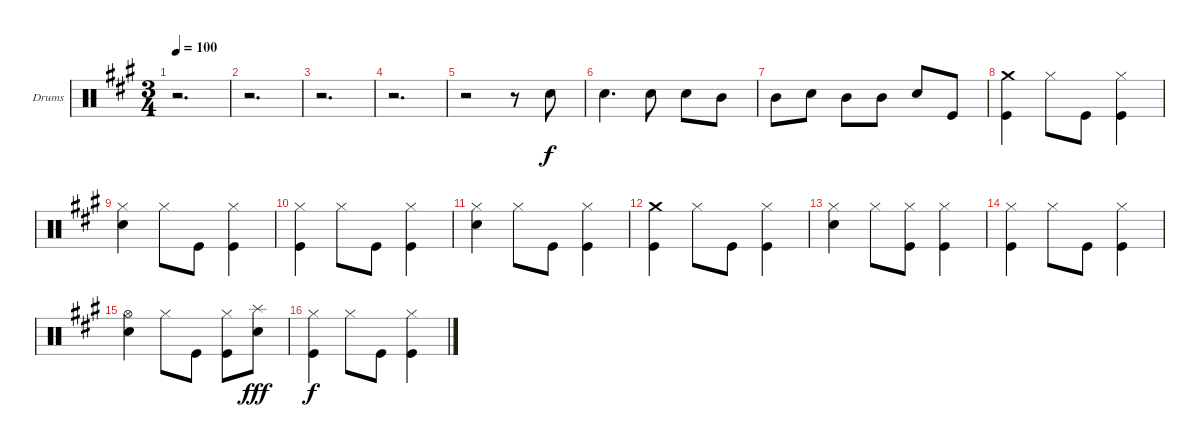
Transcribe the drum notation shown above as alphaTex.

\bracketExtendMode groupsimilarinstruments
\firstSystemTrackNameOrientation horizontal
\otherSystemsTrackNameOrientation horizontal
\track ("Drumkit" "Drums") {instrument percussion}
\staff {score}
\articulation defaults
\ts (3 4)
\tempo 100
\clef neutral
\scale
1.05801
\ks a
r.2{d dy f} |
\scale
0.941992 r.2{d} |
\scale
1.05801 r.2{d} |
\scale
0.941992 r.2{d} |
\scale
1.05801 r.2 r.8 "Snare (hit) 2".8 |
\scale
0.941992 "Snare (hit) 2".4{d} "Snare (hit) 2".8 "Snare (hit) 2".8 "Mid Tom (hit)".8 |
\scale
1.05801 "Mid Tom (hit)".8 "Snare (hit) 2".8 "Mid Tom (hit)".8 "Mid Tom (hit)".8 "Snare (hit) 2".8 "Kick (hit)".8 |
\scale
0.941992 ("Crash medium (hit)" "Kick (hit)").4 "Hi-Hat (closed)".8 "Kick (hit)".8 ("Hi-Hat (closed)" "Kick (hit)").4 |
\scale
1.05801 ("Hi-Hat (closed)" "Snare (hit) 2").4 "Hi-Hat (closed)".8 "Kick (hit)".8 ("Hi-Hat (closed)" "Kick (hit)").4 |
\scale
0.941992 ("Hi-Hat (closed)" "Kick (hit)").4 "Hi-Hat (closed)".8 "Kick (hit)".8 ("Hi-Hat (closed)" "Kick (hit)").4 |
\scale
1.05801 ("Hi-Hat (closed)" "Snare (hit) 2").4 "Hi-Hat (closed)".8 "Kick (hit)".8 ("Hi-Hat (closed)" "Kick (hit)").4 |
\scale
0.941992 ("Crash medium (hit)" "Kick (hit)").4 "Hi-Hat (closed)".8 "Kick (hit)".8 ("Hi-Hat (closed)" "Kick (hit)").4 |
\scale
1.05801 ("Hi-Hat (closed)" "Snare (hit) 2").4 "Hi-Hat (closed)".8 ("Hi-Hat (closed)" "Kick (hit)").8 ("Hi-Hat (closed)" "Kick (hit)").4 |
\scale
0.941992 ("Hi-Hat (closed)" "Kick (hit)").4 "Hi-Hat (closed)".8 "Kick (hit)".8 ("Hi-Hat (closed)" "Kick (hit)").4 |
\scale
1.05801 ("Hi-Hat (open)" "Snare (hit) 2").4 "Hi-Hat (closed)".8 "Kick (hit)".8 ("Hi-Hat (closed)" "Kick (hit)").8 ("Splash (hit)" "Snare (hit) 2").8{dy fff} |
\scale
0.941992 ("Hi-Hat (closed)" "Kick (hit)").4{dy f} "Hi-Hat (closed)".8 "Kick (hit)".8 ("Hi-Hat (closed)" "Kick (hit)").4
